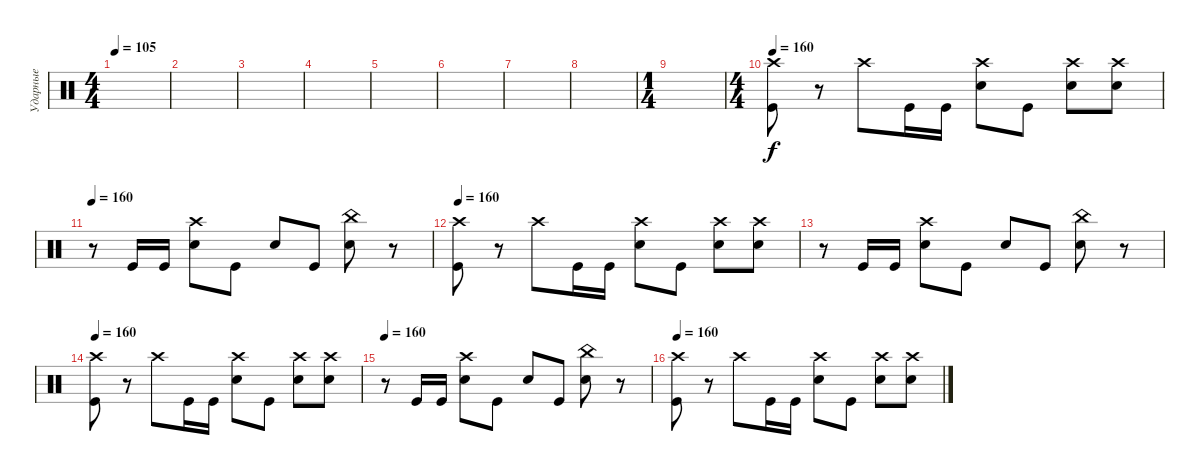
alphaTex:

\track ("Ударные" "Ударные") {instrument percussion}
\staff {score}
\articulation defaults
\ts (4 4)
\tempo 105
\clef neutral
\ks c
|
|
|
|
|
|
|
|
\ts (1 4)
|
\ts (4 4)
\tempo 160
("Crash high (hit)" "Kick (hit)").8 r.8 "Crash high (hit)".8 "Kick (hit)".16 "Kick (hit)".16 ("Crash high (hit)" "Snare (hit) 2").8 "Kick (hit)".8 ("Crash high (hit)" "Snare (hit) 2").8 ("Crash high (hit)" "Snare (hit) 2").8 |
\tempo 160
r.8 "Kick (hit)".16 "Kick (hit)".16 ("Crash high (hit)" "Snare (hit) 2").8 "Kick (hit)".8 "Snare (hit) 2".8 "Kick (hit)".8 ("Snare (hit) 2" "China (hit)").8 r.8 |
\tempo 160
("Crash high (hit)" "Kick (hit)").8 r.8 "Crash high (hit)".8 "Kick (hit)".16 "Kick (hit)".16 ("Crash high (hit)" "Snare (hit) 2").8 "Kick (hit)".8 ("Crash high (hit)" "Snare (hit) 2").8 ("Crash high (hit)" "Snare (hit) 2").8 |
r.8 "Kick (hit)".16 "Kick (hit)".16 ("Crash high (hit)" "Snare (hit) 2").8 "Kick (hit)".8 "Snare (hit) 2".8 "Kick (hit)".8 ("Snare (hit) 2" "China (hit)").8 r.8 |
\tempo 160
("Crash high (hit)" "Kick (hit)").8 r.8 "Crash high (hit)".8 "Kick (hit)".16 "Kick (hit)".16 ("Crash high (hit)" "Snare (hit) 2").8 "Kick (hit)".8 ("Crash high (hit)" "Snare (hit) 2").8 ("Crash high (hit)" "Snare (hit) 2").8 |
\tempo 160
r.8 "Kick (hit)".16 "Kick (hit)".16 ("Crash high (hit)" "Snare (hit) 2").8 "Kick (hit)".8 "Snare (hit) 2".8 "Kick (hit)".8 ("Snare (hit) 2" "China (hit)").8 r.8 |
\tempo 160
("Crash high (hit)" "Kick (hit)").8 r.8 "Crash high (hit)".8 "Kick (hit)".16 "Kick (hit)".16 ("Crash high (hit)" "Snare (hit) 2").8 "Kick (hit)".8 ("Crash high (hit)" "Snare (hit) 2").8 ("Crash high (hit)" "Snare (hit) 2").8
